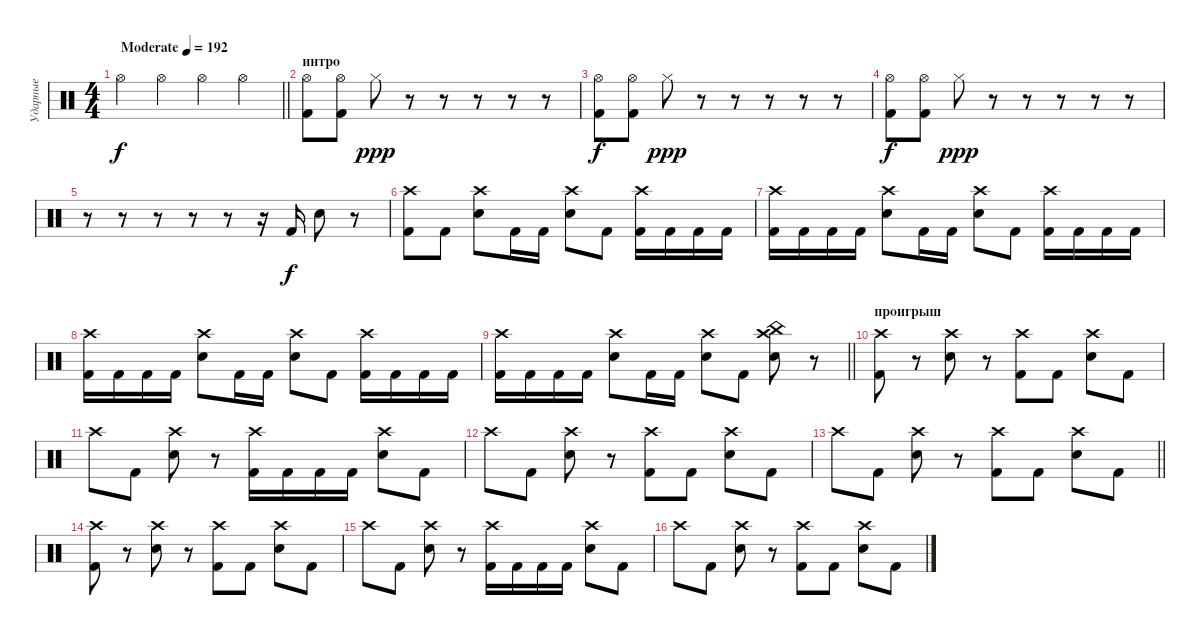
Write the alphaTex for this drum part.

\track ("Ударные" "Ударные") {instrument percussion}
\staff {score}
\articulation defaults
\ts (4 4)
\tempo (192 "Moderate")
\clef neutral
\barLineRight lightlight
\ks c "Hi-Hat (open)".4{dy f} "Hi-Hat (open)".4 "Hi-Hat (open)".4 "Hi-Hat (open)".4
|
\section ("" "интро")
("Hi-Hat (open)" "Kick (hit) 2").8 ("Hi-Hat (open)" "Kick (hit) 2").8 "Hi-Hat (closed)".8{dy ppp} r.8 r.8 r.8 r.8 r.8 |
("Hi-Hat (open)" "Kick (hit) 2").8{dy f} ("Hi-Hat (open)" "Kick (hit) 2").8 "Hi-Hat (closed)".8{dy ppp} r.8 r.8 r.8 r.8 r.8 |
("Hi-Hat (open)" "Kick (hit) 2").8{dy f} ("Hi-Hat (open)" "Kick (hit) 2").8 "Hi-Hat (closed)".8{dy ppp} r.8 r.8 r.8 r.8 r.8 |
r.8 r.8 r.8 r.8 r.8 r.16 "Kick (hit) 2".16{dy f} "Electric Snare (hit)".8 r.8 |
("Crash high (hit)" "Kick (hit) 2").8 "Kick (hit) 2".8 ("Crash high (hit)" "Electric Snare (hit)").8 "Kick (hit) 2".16 "Kick (hit) 2".16 ("Crash high (hit)" "Electric Snare (hit)").8 "Kick (hit) 2".8 ("Crash high (hit)" "Kick (hit) 2").16 "Kick (hit) 2".16 "Kick (hit) 2".16 "Kick (hit) 2".16 |
("Crash high (hit)" "Kick (hit) 2").16 "Kick (hit) 2".16 "Kick (hit) 2".16 "Kick (hit) 2".16 ("Crash high (hit)" "Electric Snare (hit)").8 "Kick (hit) 2".16 "Kick (hit) 2".16 ("Crash high (hit)" "Electric Snare (hit)").8 "Kick (hit) 2".8 ("Crash high (hit)" "Kick (hit) 2").16 "Kick (hit) 2".16 "Kick (hit) 2".16 "Kick (hit) 2".16 |
("Crash high (hit)" "Kick (hit) 2").16 "Kick (hit) 2".16 "Kick (hit) 2".16 "Kick (hit) 2".16 ("Crash high (hit)" "Electric Snare (hit)").8 "Kick (hit) 2".16 "Kick (hit) 2".16 ("Crash high (hit)" "Electric Snare (hit)").8 "Kick (hit) 2".8 ("Crash high (hit)" "Kick (hit) 2").16 "Kick (hit) 2".16 "Kick (hit) 2".16 "Kick (hit) 2".16 |
\barLineRight lightlight
("Crash high (hit)" "Kick (hit) 2").16 "Kick (hit) 2".16 "Kick (hit) 2".16 "Kick (hit) 2".16 ("Crash high (hit)" "Electric Snare (hit)").8 "Kick (hit) 2".16 "Kick (hit) 2".16 ("Crash high (hit)" "Electric Snare (hit)").8 "Kick (hit) 2".8 ("Crash high (hit)" "China (hit)" "Electric Snare (hit)").8 r.8 |
\section ("" "проигрыш")
("Crash high (hit)" "Kick (hit) 2").8 r.8 ("Crash high (hit)" "Electric Snare (hit)").8 r.8 ("Crash high (hit)" "Kick (hit) 2").8 "Kick (hit) 2".8 ("Crash high (hit)" "Electric Snare (hit)").8 "Kick (hit) 2".8 |
"Crash high (hit)".8 "Kick (hit) 2".8 ("Crash high (hit)" "Electric Snare (hit)").8 r.8 ("Crash high (hit)" "Kick (hit) 2").16 "Kick (hit) 2".16 "Kick (hit) 2".16 "Kick (hit) 2".16 ("Crash high (hit)" "Electric Snare (hit)").8 "Kick (hit) 2".8 |
"Crash high (hit)".8 "Kick (hit) 2".8 ("Crash high (hit)" "Electric Snare (hit)").8 r.8 ("Crash high (hit)" "Kick (hit) 2").8 "Kick (hit) 2".8 ("Crash high (hit)" "Electric Snare (hit)").8 "Kick (hit) 2".8 |
\barLineRight lightlight "Crash high (hit)".8 "Kick (hit) 2".8
("Crash high (hit)" "Electric Snare (hit)").8 r.8 ("Crash high (hit)" "Kick (hit) 2").8 "Kick (hit) 2".8 ("Crash high (hit)" "Electric Snare (hit)").8 "Kick (hit) 2".8 |
("Crash high (hit)" "Kick (hit) 2").8 r.8 ("Crash high (hit)" "Electric Snare (hit)").8 r.8 ("Crash high (hit)" "Kick (hit) 2").8 "Kick (hit) 2".8 ("Crash high (hit)" "Electric Snare (hit)").8 "Kick (hit) 2".8 |
"Crash high (hit)".8 "Kick (hit) 2".8 ("Crash high (hit)" "Electric Snare (hit)").8 r.8 ("Crash high (hit)" "Kick (hit) 2").16 "Kick (hit) 2".16 "Kick (hit) 2".16 "Kick (hit) 2".16 ("Crash high (hit)" "Electric Snare (hit)").8 "Kick (hit) 2".8 |
"Crash high (hit)".8 "Kick (hit) 2".8 ("Crash high (hit)" "Electric Snare (hit)").8 r.8 ("Crash high (hit)" "Kick (hit) 2").8 "Kick (hit) 2".8 ("Crash high (hit)" "Electric Snare (hit)").8 "Kick (hit) 2".8
